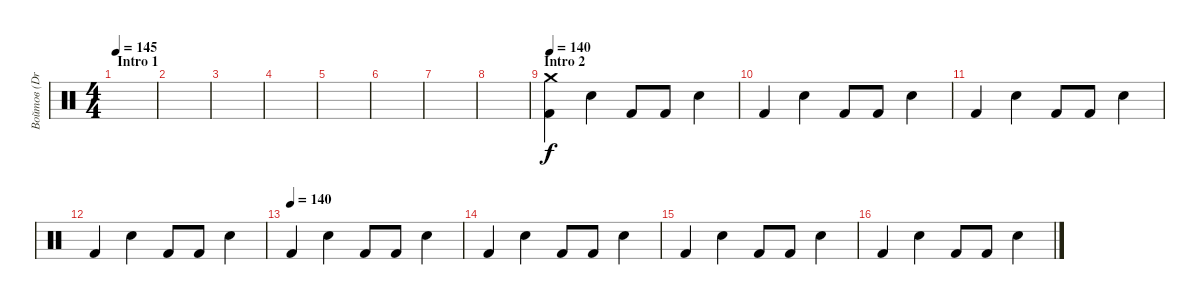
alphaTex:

\track ("Войтов (Drums)" "Войтов (Dr") {instrument percussion}
\staff {score}
\articulation defaults
\ts (4 4)
\section ("" "Intro 1")
\tempo 145
\clef neutral
\ks c
|
|
|
|
|
|
|
|
\section ("" "Intro 2")
\tempo 140
("Kick (hit) 2" "Crash medium (hit)").4 "Electric Snare (hit)".4 "Kick (hit) 2".8 "Kick (hit) 2".8 "Electric Snare (hit)".4 |
"Kick (hit) 2".4 "Electric Snare (hit)".4 "Kick (hit) 2".8 "Kick (hit) 2".8 "Electric Snare (hit)".4 |
"Kick (hit) 2".4 "Electric Snare (hit)".4 "Kick (hit) 2".8 "Kick (hit) 2".8 "Electric Snare (hit)".4 |
"Kick (hit) 2".4 "Electric Snare (hit)".4 "Kick (hit) 2".8 "Kick (hit) 2".8 "Electric Snare (hit)".4 |
\tempo (140)
"Kick (hit) 2".4 "Electric Snare (hit)".4 "Kick (hit) 2".8 "Kick (hit) 2".8 "Electric Snare (hit)".4 |
"Kick (hit) 2".4 "Electric Snare (hit)".4 "Kick (hit) 2".8 "Kick (hit) 2".8 "Electric Snare (hit)".4 |
"Kick (hit) 2".4 "Electric Snare (hit)".4 "Kick (hit) 2".8 "Kick (hit) 2".8 "Electric Snare (hit)".4 |
"Kick (hit) 2".4 "Electric Snare (hit)".4 "Kick (hit) 2".8 "Kick (hit) 2".8 "Electric Snare (hit)".4
